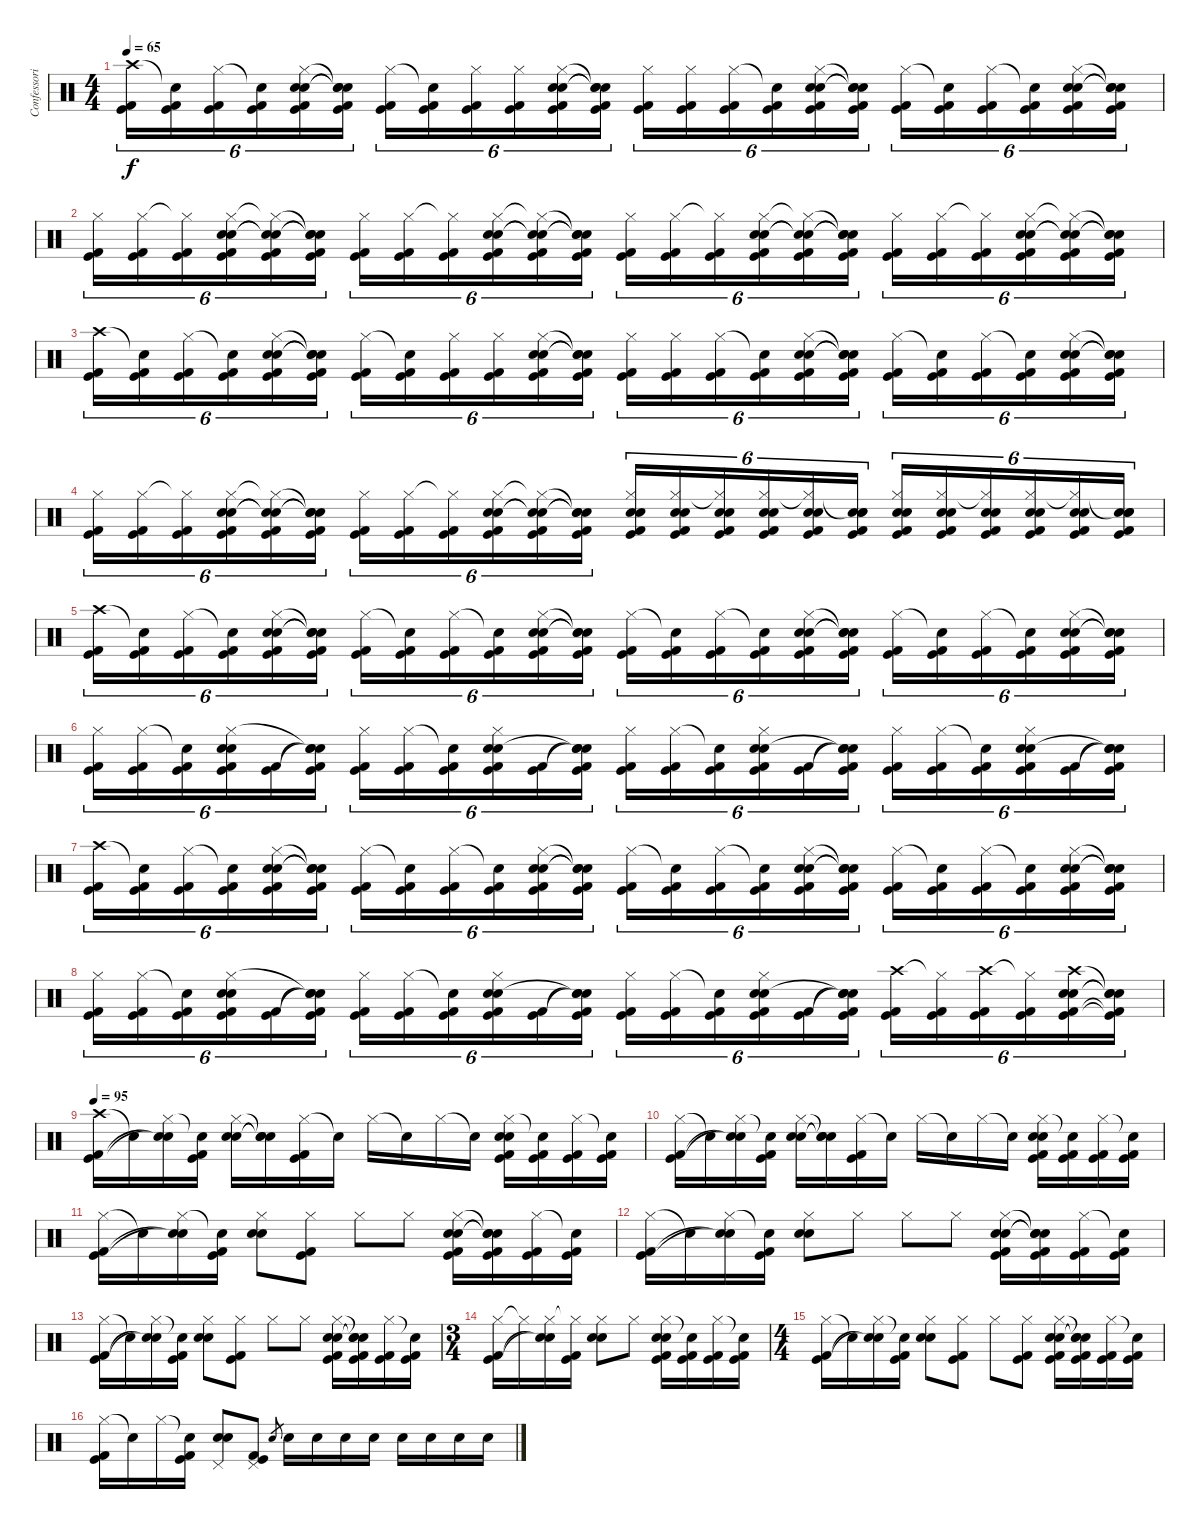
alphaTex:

\track ("Confessori" "Confessori") {instrument percussion}
\staff {score}
\articulation defaults
\ts (4 4)
\tempo 65
\clef neutral
\ks c
("Crash high (hit)" "Kick (hit) 2" "Kick (hit)").16{tu (6 4) dy f volume 10} ("Snare (hit)"{t} "Kick (hit) 2" "Kick (hit)").16{tu (6 4)} ("Hi-Hat (closed)" "Kick (hit) 2" "Kick (hit)").16{tu (6 4)} ("Snare (hit)"{t} "Kick (hit) 2" "Kick (hit)").16{tu (6 4)} ("Hi-Hat (closed)" "Electric Snare (hit)" "Snare (hit) 2" "Kick (hit) 2" "Kick (hit)").16{tu (6 4)} ("Snare (hit)"{t} "Snare (hit)"{t} "Snare (hit)"{t} "Kick (hit) 2" "Kick (hit)").16{tu (6 4)} ("Hi-Hat (closed)" "Kick (hit) 2" "Kick (hit)").16{tu (6 4)} ("Snare (hit)"{t} "Kick (hit) 2" "Kick (hit)").16{tu (6 4)} ("Hi-Hat (closed)" "Kick (hit) 2" "Kick (hit)").16{tu (6 4)} ("Hi-Hat (closed)" "Kick (hit) 2" "Kick (hit)").16{tu (6 4)} ("Hi-Hat (closed)" "Electric Snare (hit)" "Snare (hit) 2" "Kick (hit) 2" "Kick (hit)").16{tu (6 4)} ("Snare (hit)"{t} "Snare (hit)"{t} "Snare (hit)"{t} "Kick (hit) 2" "Kick (hit)").16{tu (6 4)} ("Hi-Hat (closed)" "Kick (hit) 2" "Kick (hit)").16{tu (6 4)} ("Hi-Hat (closed)" "Kick (hit) 2" "Kick (hit)").16{tu (6 4)} ("Hi-Hat (closed)" "Kick (hit) 2" "Kick (hit)").16{tu (6 4)} ("Snare (hit)"{t} "Kick (hit) 2" "Kick (hit)").16{tu (6 4)} ("Hi-Hat (closed)" "Electric Snare (hit)" "Snare (hit) 2" "Kick (hit) 2" "Kick (hit)").16{tu (6 4)} ("Snare (hit)"{t} "Snare (hit)"{t} "Snare (hit)"{t} "Kick (hit) 2" "Kick (hit)").16{tu (6 4)} ("Hi-Hat (closed)" "Kick (hit) 2" "Kick (hit)").16{tu (6 4)} ("Snare (hit)"{t} "Kick (hit) 2" "Kick (hit)").16{tu (6 4)} ("Hi-Hat (closed)" "Kick (hit) 2" "Kick (hit)").16{tu (6 4)} ("Snare (hit)"{t} "Kick (hit) 2" "Kick (hit)").16{tu (6 4)} ("Hi-Hat (closed)" "Electric Snare (hit)" "Snare (hit) 2" "Kick (hit) 2" "Kick (hit)").16{tu (6 4)} ("Snare (hit)"{t} "Snare (hit)"{t} "Snare (hit)"{t} "Kick (hit) 2" "Kick (hit)").16{tu (6 4)} |
("Hi-Hat (closed)" "Kick (hit) 2" "Kick (hit)").16{tu (6 4)} ("Hi-Hat (closed)" "Kick (hit) 2" "Kick (hit)").16{tu (6 4)} ("Hi-Hat (closed)"{t} "Kick (hit) 2" "Kick (hit)").16{tu (6 4)} ("Hi-Hat (closed)" "Electric Snare (hit)" "Snare (hit) 2" "Kick (hit) 2" "Kick (hit)").16{tu (6 4)} ("Hi-Hat (closed)"{t} "Electric Snare (hit)"{t} "Snare (hit) 2"{t} "Kick (hit) 2" "Kick (hit)").16{tu (6 4)} ("Snare (hit)"{t} "Snare (hit)"{t} "Snare (hit)"{t} "Kick (hit) 2" "Kick (hit)").16{tu (6 4)} ("Hi-Hat (closed)" "Kick (hit) 2" "Kick (hit)").16{tu (6 4)} ("Hi-Hat (closed)" "Kick (hit) 2" "Kick (hit)").16{tu (6 4)} ("Hi-Hat (closed)"{t} "Kick (hit) 2" "Kick (hit)").16{tu (6 4)} ("Hi-Hat (closed)" "Electric Snare (hit)" "Snare (hit) 2" "Kick (hit) 2" "Kick (hit)").16{tu (6 4)} ("Hi-Hat (closed)"{t} "Electric Snare (hit)"{t} "Snare (hit) 2"{t} "Kick (hit) 2" "Kick (hit)").16{tu (6 4)} ("Snare (hit)"{t} "Snare (hit)"{t} "Snare (hit)"{t} "Kick (hit) 2" "Kick (hit)").16{tu (6 4)} ("Hi-Hat (closed)" "Kick (hit) 2" "Kick (hit)").16{tu (6 4)} ("Hi-Hat (closed)" "Kick (hit) 2" "Kick (hit)").16{tu (6 4)} ("Hi-Hat (closed)"{t} "Kick (hit) 2" "Kick (hit)").16{tu (6 4)} ("Hi-Hat (closed)" "Electric Snare (hit)" "Snare (hit) 2" "Kick (hit) 2" "Kick (hit)").16{tu (6 4)} ("Hi-Hat (closed)"{t} "Electric Snare (hit)"{t} "Snare (hit) 2"{t} "Kick (hit) 2" "Kick (hit)").16{tu (6 4)} ("Snare (hit)"{t} "Snare (hit)"{t} "Snare (hit)"{t} "Kick (hit) 2" "Kick (hit)").16{tu (6 4)} ("Hi-Hat (closed)" "Kick (hit) 2" "Kick (hit)").16{tu (6 4)} ("Hi-Hat (closed)" "Kick (hit) 2" "Kick (hit)").16{tu (6 4)} ("Hi-Hat (closed)"{t} "Kick (hit) 2" "Kick (hit)").16{tu (6 4)} ("Hi-Hat (closed)" "Electric Snare (hit)" "Snare (hit) 2" "Kick (hit) 2" "Kick (hit)").16{tu (6 4)} ("Hi-Hat (closed)"{t} "Electric Snare (hit)"{t} "Snare (hit) 2"{t} "Kick (hit) 2" "Kick (hit)").16{tu (6 4)} ("Snare (hit)"{t} "Snare (hit)"{t} "Snare (hit)"{t} "Kick (hit) 2" "Kick (hit)").16{tu (6 4)} |
("Crash high (hit)" "Kick (hit) 2" "Kick (hit)").16{tu (6 4) volume 10} ("Snare (hit)"{t} "Kick (hit) 2" "Kick (hit)").16{tu (6 4)} ("Hi-Hat (closed)" "Kick (hit) 2" "Kick (hit)").16{tu (6 4)} ("Snare (hit)"{t} "Kick (hit) 2" "Kick (hit)").16{tu (6 4)} ("Hi-Hat (closed)" "Electric Snare (hit)" "Snare (hit) 2" "Kick (hit) 2" "Kick (hit)").16{tu (6 4)} ("Snare (hit)"{t} "Snare (hit)"{t} "Snare (hit)"{t} "Kick (hit) 2" "Kick (hit)").16{tu (6 4)} ("Hi-Hat (closed)" "Kick (hit) 2" "Kick (hit)").16{tu (6 4)} ("Snare (hit)"{t} "Kick (hit) 2" "Kick (hit)").16{tu (6 4)} ("Hi-Hat (closed)" "Kick (hit) 2" "Kick (hit)").16{tu (6 4)} ("Hi-Hat (closed)" "Kick (hit) 2" "Kick (hit)").16{tu (6 4)} ("Hi-Hat (closed)" "Electric Snare (hit)" "Snare (hit) 2" "Kick (hit) 2" "Kick (hit)").16{tu (6 4)} ("Snare (hit)"{t} "Snare (hit)"{t} "Snare (hit)"{t} "Kick (hit) 2" "Kick (hit)").16{tu (6 4)} ("Hi-Hat (closed)" "Kick (hit) 2" "Kick (hit)").16{tu (6 4)} ("Hi-Hat (closed)" "Kick (hit) 2" "Kick (hit)").16{tu (6 4)} ("Hi-Hat (closed)" "Kick (hit) 2" "Kick (hit)").16{tu (6 4)} ("Snare (hit)"{t} "Kick (hit) 2" "Kick (hit)").16{tu (6 4)} ("Hi-Hat (closed)" "Electric Snare (hit)" "Snare (hit) 2" "Kick (hit) 2" "Kick (hit)").16{tu (6 4)} ("Snare (hit)"{t} "Snare (hit)"{t} "Snare (hit)"{t} "Kick (hit) 2" "Kick (hit)").16{tu (6 4)} ("Hi-Hat (closed)" "Kick (hit) 2" "Kick (hit)").16{tu (6 4)} ("Snare (hit)"{t} "Kick (hit) 2" "Kick (hit)").16{tu (6 4)} ("Hi-Hat (closed)" "Kick (hit) 2" "Kick (hit)").16{tu (6 4)} ("Snare (hit)"{t} "Kick (hit) 2" "Kick (hit)").16{tu (6 4)} ("Hi-Hat (closed)" "Electric Snare (hit)" "Snare (hit) 2" "Kick (hit) 2" "Kick (hit)").16{tu (6 4)} ("Snare (hit)"{t} "Snare (hit)"{t} "Snare (hit)"{t} "Kick (hit) 2" "Kick (hit)").16{tu (6 4)} |
("Hi-Hat (closed)" "Kick (hit) 2" "Kick (hit)").16{tu (6 4)} ("Hi-Hat (closed)" "Kick (hit) 2" "Kick (hit)").16{tu (6 4)} ("Hi-Hat (closed)"{t} "Kick (hit) 2" "Kick (hit)").16{tu (6 4)} ("Hi-Hat (closed)" "Electric Snare (hit)" "Snare (hit) 2" "Kick (hit) 2" "Kick (hit)").16{tu (6 4)} ("Hi-Hat (closed)"{t} "Electric Snare (hit)"{t} "Snare (hit) 2"{t} "Kick (hit) 2" "Kick (hit)").16{tu (6 4)} ("Snare (hit)"{t} "Snare (hit)"{t} "Snare (hit)"{t} "Kick (hit) 2" "Kick (hit)").16{tu (6 4)} ("Hi-Hat (closed)" "Kick (hit) 2" "Kick (hit)").16{tu (6 4)} ("Hi-Hat (closed)" "Kick (hit) 2" "Kick (hit)").16{tu (6 4)} ("Hi-Hat (closed)"{t} "Kick (hit) 2" "Kick (hit)").16{tu (6 4)} ("Hi-Hat (closed)" "Electric Snare (hit)" "Snare (hit) 2" "Kick (hit) 2" "Kick (hit)").16{tu (6 4)} ("Hi-Hat (closed)"{t} "Electric Snare (hit)"{t} "Snare (hit) 2"{t} "Kick (hit) 2" "Kick (hit)").16{tu (6 4)} ("Snare (hit)"{t} "Snare (hit)"{t} "Snare (hit)"{t} "Kick (hit) 2" "Kick (hit)").16{tu (6 4)} ("Hi-Hat (closed)" "Electric Snare (hit)" "Snare (hit) 2" "Kick (hit) 2" "Kick (hit)").16{tu (6 4)} ("Hi-Hat (closed)" "Electric Snare (hit)" "Snare (hit) 2" "Kick (hit) 2" "Kick (hit)").16{tu (6 4)} ("Hi-Hat (closed)"{t} "Electric Snare (hit)" "Snare (hit) 2" "Kick (hit) 2" "Kick (hit)").16{tu (6 4)} ("Hi-Hat (closed)" "Electric Snare (hit)" "Snare (hit) 2" "Kick (hit) 2" "Kick (hit)").16{tu (6 4)} ("Hi-Hat (closed)"{t} "Electric Snare (hit)" "Snare (hit) 2" "Kick (hit) 2" "Kick (hit)").16{tu (6 4)} ("Snare (hit)"{t} "Electric Snare (hit)" "Snare (hit) 2" "Kick (hit) 2" "Kick (hit)").16{tu (6 4)} ("Hi-Hat (closed)" "Electric Snare (hit)" "Snare (hit) 2" "Kick (hit) 2" "Kick (hit)").16{tu (6 4)} ("Hi-Hat (closed)" "Electric Snare (hit)" "Snare (hit) 2" "Kick (hit) 2" "Kick (hit)").16{tu (6 4)} ("Hi-Hat (closed)"{t} "Electric Snare (hit)" "Snare (hit) 2" "Kick (hit) 2" "Kick (hit)").16{tu (6 4)} ("Hi-Hat (closed)" "Electric Snare (hit)" "Snare (hit) 2" "Kick (hit) 2" "Kick (hit)").16{tu (6 4)} ("Hi-Hat (closed)"{t} "Electric Snare (hit)" "Snare (hit) 2" "Kick (hit) 2" "Kick (hit)").16{tu (6 4)} ("Snare (hit)"{t} "Electric Snare (hit)" "Snare (hit) 2" "Kick (hit) 2" "Kick (hit)").16{tu (6 4)} |
("Crash high (hit)" "Kick (hit) 2" "Kick (hit)").16{tu (6 4)} ("Snare (hit)"{t} "Kick (hit) 2" "Kick (hit)").16{tu (6 4)} ("Hi-Hat (closed)" "Kick (hit) 2" "Kick (hit)").16{tu (6 4)} ("Snare (hit)"{t} "Kick (hit) 2" "Kick (hit)").16{tu (6 4)} ("Hi-Hat (closed)" "Electric Snare (hit)" "Snare (hit) 2" "Kick (hit) 2" "Kick (hit)").16{tu (6 4)} ("Snare (hit)"{t} "Snare (hit)"{t} "Snare (hit)"{t} "Kick (hit) 2" "Kick (hit)").16{tu (6 4)} ("Hi-Hat (closed)" "Kick (hit) 2" "Kick (hit)").16{tu (6 4)} ("Snare (hit)"{t} "Kick (hit) 2" "Kick (hit)").16{tu (6 4)} ("Hi-Hat (closed)" "Kick (hit) 2" "Kick (hit)").16{tu (6 4)} ("Snare (hit)"{t} "Kick (hit) 2" "Kick (hit)").16{tu (6 4)} ("Hi-Hat (closed)" "Electric Snare (hit)" "Snare (hit) 2" "Kick (hit) 2" "Kick (hit)").16{tu (6 4)} ("Snare (hit)"{t} "Snare (hit)"{t} "Snare (hit)"{t} "Kick (hit) 2" "Kick (hit)").16{tu (6 4)} ("Hi-Hat (closed)" "Kick (hit) 2" "Kick (hit)").16{tu (6 4)} ("Snare (hit)"{t} "Kick (hit) 2" "Kick (hit)").16{tu (6 4)} ("Hi-Hat (closed)" "Kick (hit) 2" "Kick (hit)").16{tu (6 4)} ("Snare (hit)"{t} "Kick (hit) 2" "Kick (hit)").16{tu (6 4)} ("Hi-Hat (closed)" "Electric Snare (hit)" "Snare (hit) 2" "Kick (hit) 2" "Kick (hit)").16{tu (6 4)} ("Snare (hit)"{t} "Snare (hit)"{t} "Snare (hit)"{t} "Kick (hit) 2" "Kick (hit)").16{tu (6 4)} ("Hi-Hat (closed)" "Kick (hit) 2" "Kick (hit)").16{tu (6 4)} ("Snare (hit)"{t} "Kick (hit) 2" "Kick (hit)").16{tu (6 4)} ("Hi-Hat (closed)" "Kick (hit) 2" "Kick (hit)").16{tu (6 4)} ("Snare (hit)"{t} "Kick (hit) 2" "Kick (hit)").16{tu (6 4)} ("Hi-Hat (closed)" "Electric Snare (hit)" "Snare (hit) 2" "Kick (hit) 2" "Kick (hit)").16{tu (6 4)} ("Snare (hit)"{t} "Snare (hit)"{t} "Snare (hit)"{t} "Kick (hit) 2" "Kick (hit)").16{tu (6 4)} |
("Hi-Hat (closed)" "Kick (hit)" "Kick (hit) 2").16{tu (6 4)} ("Hi-Hat (closed)" "Kick (hit)" "Kick (hit) 2").16{tu (6 4)} ("Snare (hit)"{t} "Kick (hit)" "Kick (hit) 2").16{tu (6 4)} ("Electric Snare (hit)" "Snare (hit) 2" "Hi-Hat (closed)" "Kick (hit)" "Kick (hit) 2").16{tu (6 4)} ("Kick (hit)" "Kick (hit) 2").16{tu (6 4)} ("Snare (hit)"{t} "Snare (hit)"{t} "Snare (hit)"{t} "Kick (hit)" "Kick (hit) 2").16{tu (6 4)} ("Hi-Hat (closed)" "Kick (hit)" "Kick (hit) 2").16{tu (6 4)} ("Hi-Hat (closed)" "Kick (hit)" "Kick (hit) 2").16{tu (6 4)} ("Snare (hit)"{t} "Kick (hit)" "Kick (hit) 2").16{tu (6 4)} ("Hi-Hat (closed)" "Electric Snare (hit)" "Snare (hit) 2" "Kick (hit)" "Kick (hit) 2").16{tu (6 4)} ("Kick (hit)" "Kick (hit) 2").16{tu (6 4)} ("Snare (hit)"{t} "Snare (hit)"{t} "Snare (hit)"{t} "Kick (hit)" "Kick (hit) 2").16{tu (6 4)} ("Hi-Hat (closed)" "Kick (hit)" "Kick (hit) 2").16{tu (6 4)} ("Hi-Hat (closed)" "Kick (hit)" "Kick (hit) 2").16{tu (6 4)} ("Snare (hit)"{t} "Kick (hit)" "Kick (hit) 2").16{tu (6 4)} ("Hi-Hat (closed)" "Electric Snare (hit)" "Snare (hit) 2" "Kick (hit)" "Kick (hit) 2").16{tu (6 4)} ("Kick (hit)" "Kick (hit) 2").16{tu (6 4)} ("Snare (hit)"{t} "Snare (hit)"{t} "Snare (hit)"{t} "Kick (hit)" "Kick (hit) 2").16{tu (6 4)} ("Hi-Hat (closed)" "Kick (hit)" "Kick (hit) 2").16{tu (6 4)} ("Hi-Hat (closed)" "Kick (hit)" "Kick (hit) 2").16{tu (6 4)} ("Snare (hit)"{t} "Kick (hit)" "Kick (hit) 2").16{tu (6 4)} ("Hi-Hat (closed)" "Electric Snare (hit)" "Snare (hit) 2" "Kick (hit)" "Kick (hit) 2").16{tu (6 4)} ("Kick (hit)" "Kick (hit) 2").16{tu (6 4)} ("Snare (hit)"{t} "Snare (hit)"{t} "Snare (hit)"{t} "Kick (hit)" "Kick (hit) 2").16{tu (6 4)} |
("Crash high (hit)" "Kick (hit) 2" "Kick (hit)").16{tu (6 4)} ("Snare (hit)"{t} "Kick (hit) 2" "Kick (hit)").16{tu (6 4)} ("Hi-Hat (closed)" "Kick (hit) 2" "Kick (hit)").16{tu (6 4)} ("Snare (hit)"{t} "Kick (hit) 2" "Kick (hit)").16{tu (6 4)} ("Hi-Hat (closed)" "Electric Snare (hit)" "Snare (hit) 2" "Kick (hit) 2" "Kick (hit)").16{tu (6 4)} ("Snare (hit)"{t} "Snare (hit)"{t} "Snare (hit)"{t} "Kick (hit) 2" "Kick (hit)").16{tu (6 4)} ("Hi-Hat (closed)" "Kick (hit) 2" "Kick (hit)").16{tu (6 4)} ("Snare (hit)"{t} "Kick (hit) 2" "Kick (hit)").16{tu (6 4)} ("Hi-Hat (closed)" "Kick (hit) 2" "Kick (hit)").16{tu (6 4)} ("Snare (hit)"{t} "Kick (hit) 2" "Kick (hit)").16{tu (6 4)} ("Hi-Hat (closed)" "Electric Snare (hit)" "Snare (hit) 2" "Kick (hit) 2" "Kick (hit)").16{tu (6 4)} ("Snare (hit)"{t} "Snare (hit)"{t} "Snare (hit)"{t} "Kick (hit) 2" "Kick (hit)").16{tu (6 4)} ("Hi-Hat (closed)" "Kick (hit) 2" "Kick (hit)").16{tu (6 4)} ("Snare (hit)"{t} "Kick (hit) 2" "Kick (hit)").16{tu (6 4)} ("Hi-Hat (closed)" "Kick (hit) 2" "Kick (hit)").16{tu (6 4)} ("Snare (hit)"{t} "Kick (hit) 2" "Kick (hit)").16{tu (6 4)} ("Hi-Hat (closed)" "Electric Snare (hit)" "Snare (hit) 2" "Kick (hit) 2" "Kick (hit)").16{tu (6 4)} ("Snare (hit)"{t} "Snare (hit)"{t} "Snare (hit)"{t} "Kick (hit) 2" "Kick (hit)").16{tu (6 4)} ("Hi-Hat (closed)" "Kick (hit) 2" "Kick (hit)").16{tu (6 4)} ("Snare (hit)"{t} "Kick (hit) 2" "Kick (hit)").16{tu (6 4)} ("Hi-Hat (closed)" "Kick (hit) 2" "Kick (hit)").16{tu (6 4)} ("Snare (hit)"{t} "Kick (hit) 2" "Kick (hit)").16{tu (6 4)} ("Hi-Hat (closed)" "Electric Snare (hit)" "Snare (hit) 2" "Kick (hit) 2" "Kick (hit)").16{tu (6 4)} ("Snare (hit)"{t} "Snare (hit)"{t} "Snare (hit)"{t} "Kick (hit) 2" "Kick (hit)").16{tu (6 4)} |
("Hi-Hat (closed)" "Kick (hit)" "Kick (hit) 2").16{tu (6 4)} ("Hi-Hat (closed)" "Kick (hit)" "Kick (hit) 2").16{tu (6 4)} ("Snare (hit)"{t} "Kick (hit)" "Kick (hit) 2").16{tu (6 4)} ("Electric Snare (hit)" "Snare (hit) 2" "Hi-Hat (closed)" "Kick (hit)" "Kick (hit) 2").16{tu (6 4)} ("Kick (hit)" "Kick (hit) 2").16{tu (6 4)} ("Snare (hit)"{t} "Snare (hit)"{t} "Snare (hit)"{t} "Kick (hit)" "Kick (hit) 2").16{tu (6 4)} ("Hi-Hat (closed)" "Kick (hit)" "Kick (hit) 2").16{tu (6 4)} ("Hi-Hat (closed)" "Kick (hit)" "Kick (hit) 2").16{tu (6 4)} ("Snare (hit)"{t} "Kick (hit)" "Kick (hit) 2").16{tu (6 4)} ("Hi-Hat (closed)" "Electric Snare (hit)" "Snare (hit) 2" "Kick (hit)" "Kick (hit) 2").16{tu (6 4)} ("Kick (hit)" "Kick (hit) 2").16{tu (6 4)} ("Snare (hit)"{t} "Snare (hit)"{t} "Snare (hit)"{t} "Kick (hit)" "Kick (hit) 2").16{tu (6 4)} ("Hi-Hat (closed)" "Kick (hit)" "Kick (hit) 2").16{tu (6 4)} ("Hi-Hat (closed)" "Kick (hit)" "Kick (hit) 2").16{tu (6 4)} ("Snare (hit)"{t} "Kick (hit)" "Kick (hit) 2").16{tu (6 4)} ("Hi-Hat (closed)" "Electric Snare (hit)" "Snare (hit) 2" "Kick (hit)" "Kick (hit) 2").16{tu (6 4)} ("Kick (hit)" "Kick (hit) 2").16{tu (6 4)} ("Snare (hit)"{t} "Snare (hit)"{t} "Snare (hit)"{t} "Kick (hit)" "Kick (hit) 2").16{tu (6 4)} ("Crash high (hit)" "Kick (hit)" "Kick (hit) 2").16{tu (6 4)} ("Hi-Hat (closed)"{t} "Kick (hit)" "Kick (hit) 2").16{tu (6 4)} ("Crash high (hit)" "Kick (hit)" "Kick (hit) 2").16{tu (6 4)} ("Hi-Hat (closed)"{t} "Kick (hit)" "Kick (hit) 2").16{tu (6 4)} ("Crash high (hit)" "Electric Snare (hit)" "Snare (hit) 2" "Kick (hit)" "Kick (hit) 2").16{tu (6 4)} ("Snare (hit)"{t} "Snare (hit)"{t} "Snare (hit)"{t} "Kick (hit)"{t} "Kick (hit) 2"{t}).16{tu (6 4)} |
\tempo 95
("Crash high (hit)" "Kick (hit)" "Kick (hit) 2").16{volume 12 balance 8} "Snare (hit)"{t}.16 ("Hi-Hat (closed)" "Snare (hit)"{t} "Snare (hit)"{t}).16 ("Snare (hit)"{t} "Kick (hit)" "Kick (hit) 2").16 ("Hi-Hat (closed)" "Electric Snare (hit)" "Snare (hit) 2").16 ("Snare (hit)"{t} "Snare (hit)"{t} "Snare (hit)"{t}).16 ("Hi-Hat (closed)" "Kick (hit)" "Kick (hit) 2").16 "Snare (hit)"{t}.16 "Hi-Hat (closed)".16 "Snare (hit)"{t}.16 "Hi-Hat (closed)".16 "Snare (hit)"{t}.16 ("Hi-Hat (closed)" "Electric Snare (hit)" "Snare (hit) 2" "Kick (hit)" "Kick (hit) 2").16 ("Snare (hit)"{t} "Kick (hit)" "Kick (hit) 2").16 ("Hi-Hat (closed)" "Kick (hit)" "Kick (hit) 2").16 ("Snare (hit)"{t} "Kick (hit)" "Kick (hit) 2").16 |
("Hi-Hat (closed)" "Kick (hit)" "Kick (hit) 2").16 "Snare (hit)"{t}.16 ("Hi-Hat (closed)" "Snare (hit)"{t} "Snare (hit)"{t}).16 ("Snare (hit)"{t} "Kick (hit)" "Kick (hit) 2").16 ("Hi-Hat (closed)" "Electric Snare (hit)" "Snare (hit) 2").16 ("Snare (hit)"{t} "Snare (hit)"{t} "Snare (hit)"{t}).16 ("Hi-Hat (closed)" "Kick (hit)" "Kick (hit) 2").16 "Snare (hit)"{t}.16 "Hi-Hat (closed)".16 "Snare (hit)"{t}.16 "Hi-Hat (closed)".16 "Snare (hit)"{t}.16 ("Hi-Hat (closed)" "Electric Snare (hit)" "Snare (hit) 2" "Kick (hit)" "Kick (hit) 2").16 ("Snare (hit)"{t} "Kick (hit)" "Kick (hit) 2").16 ("Hi-Hat (closed)" "Kick (hit)" "Kick (hit) 2").16 ("Snare (hit)"{t} "Kick (hit)" "Kick (hit) 2").16 |
("Hi-Hat (closed)" "Kick (hit)" "Kick (hit) 2").16 "Snare (hit)"{t}.16 ("Hi-Hat (closed)" "Snare (hit)"{t} "Snare (hit)"{t}).16 ("Snare (hit)"{t} "Kick (hit)" "Kick (hit) 2").16 ("Hi-Hat (closed)" "Electric Snare (hit)" "Snare (hit) 2").8 ("Hi-Hat (closed)" "Kick (hit)" "Kick (hit) 2").8 "Hi-Hat (closed)".8 "Hi-Hat (closed)".8 ("Hi-Hat (closed)" "Electric Snare (hit)" "Snare (hit) 2" "Kick (hit)" "Kick (hit) 2").16 ("Snare (hit)"{t} "Snare (hit)"{t} "Snare (hit)"{t} "Kick (hit)" "Kick (hit) 2").16 ("Hi-Hat (closed)" "Kick (hit)" "Kick (hit) 2").16 ("Snare (hit)"{t} "Kick (hit)" "Kick (hit) 2").16 |
("Hi-Hat (closed)" "Kick (hit)" "Kick (hit) 2").16 "Snare (hit)"{t}.16 ("Hi-Hat (closed)" "Snare (hit)"{t} "Snare (hit)"{t}).16 ("Snare (hit)"{t} "Kick (hit)" "Kick (hit) 2").16 ("Hi-Hat (closed)" "Electric Snare (hit)" "Snare (hit) 2").8 "Hi-Hat (closed)".8 "Hi-Hat (closed)".8 "Hi-Hat (closed)".8 ("Hi-Hat (closed)" "Electric Snare (hit)" "Snare (hit) 2" "Kick (hit)" "Kick (hit) 2").16 ("Snare (hit)"{t} "Snare (hit)"{t} "Snare (hit)"{t} "Kick (hit)" "Kick (hit) 2").16 ("Hi-Hat (closed)" "Kick (hit)" "Kick (hit) 2").16 ("Snare (hit)"{t} "Kick (hit)" "Kick (hit) 2").16 |
("Hi-Hat (closed)" "Kick (hit)" "Kick (hit) 2").16 "Snare (hit)"{t}.16 ("Hi-Hat (closed)" "Snare (hit)"{t} "Snare (hit)"{t}).16 ("Snare (hit)"{t} "Kick (hit)" "Kick (hit) 2").16 ("Hi-Hat (closed)" "Electric Snare (hit)" "Snare (hit) 2").8 ("Hi-Hat (closed)" "Kick (hit)" "Kick (hit) 2").8 "Hi-Hat (closed)".8 "Hi-Hat (closed)".8 ("Hi-Hat (closed)" "Electric Snare (hit)" "Snare (hit) 2" "Kick (hit)" "Kick (hit) 2").16 ("Snare (hit)"{t} "Snare (hit)"{t} "Snare (hit)"{t} "Kick (hit)" "Kick (hit) 2").16 ("Hi-Hat (closed)" "Kick (hit)" "Kick (hit) 2").16 ("Snare (hit)"{t} "Kick (hit)" "Kick (hit) 2").16 |
\ts (3 4)
("Hi-Hat (closed)" "Kick (hit)" "Kick (hit) 2").16 "Hi-Hat (closed)"{t}.16 ("Hi-Hat (closed)" "Snare (hit)"{t} "Snare (hit)"{t}).16 ("Hi-Hat (closed)"{t} "Kick (hit) 2" "Kick (hit)").16 ("Hi-Hat (closed)" "Electric Snare (hit)" "Snare (hit) 2").8 "Hi-Hat (closed)".8 ("Hi-Hat (closed)" "Electric Snare (hit)" "Snare (hit) 2" "Kick (hit)" "Kick (hit) 2").16 ("Snare (hit)"{t} "Kick (hit)" "Kick (hit) 2").16 ("Hi-Hat (closed)" "Kick (hit)" "Kick (hit) 2").16 ("Snare (hit)"{t} "Kick (hit)" "Kick (hit) 2").16 |
\ts (4 4)
("Hi-Hat (closed)" "Kick (hit)" "Kick (hit) 2").16 "Snare (hit)"{t}.16 ("Hi-Hat (closed)" "Snare (hit)"{t} "Snare (hit)"{t}).16 ("Snare (hit)"{t} "Kick (hit)" "Kick (hit) 2").16 ("Hi-Hat (closed)" "Electric Snare (hit)" "Snare (hit) 2").8 ("Hi-Hat (closed)" "Kick (hit)" "Kick (hit) 2").8 "Hi-Hat (closed)".8 ("Hi-Hat (closed)" "Kick (hit)" "Kick (hit) 2").8 ("Hi-Hat (closed)" "Electric Snare (hit)" "Snare (hit) 2" "Kick (hit)" "Kick (hit) 2").16 ("Snare (hit)"{t} "Snare (hit)"{t} "Snare (hit)"{t} "Kick (hit)" "Kick (hit) 2").16 ("Hi-Hat (closed)" "Kick (hit)" "Kick (hit) 2").16 ("Snare (hit)"{t} "Kick (hit)" "Kick (hit) 2").16 |
("Hi-Hat (closed)" "Kick (hit)" "Kick (hit) 2").16 "Snare (hit)"{t}.16 "Hi-Hat (closed)".16 ("Snare (hit)"{t} "Kick (hit)" "Kick (hit) 2").16 ("Pedal Hi-Hat (hit)" "Electric Snare (hit)" "Snare (hit) 2").8 ("Pedal Hi-Hat (hit)" "Kick (hit)" "Kick (hit) 2").8 "Electric Snare (hit)".8{gr} "Electric Snare (hit)".16 "Electric Snare (hit)".16 "Electric Snare (hit)".16 "Electric Snare (hit)".16 "Electric Snare (hit)".16 "Electric Snare (hit)".16 "Electric Snare (hit)".16 "Electric Snare (hit)".16
